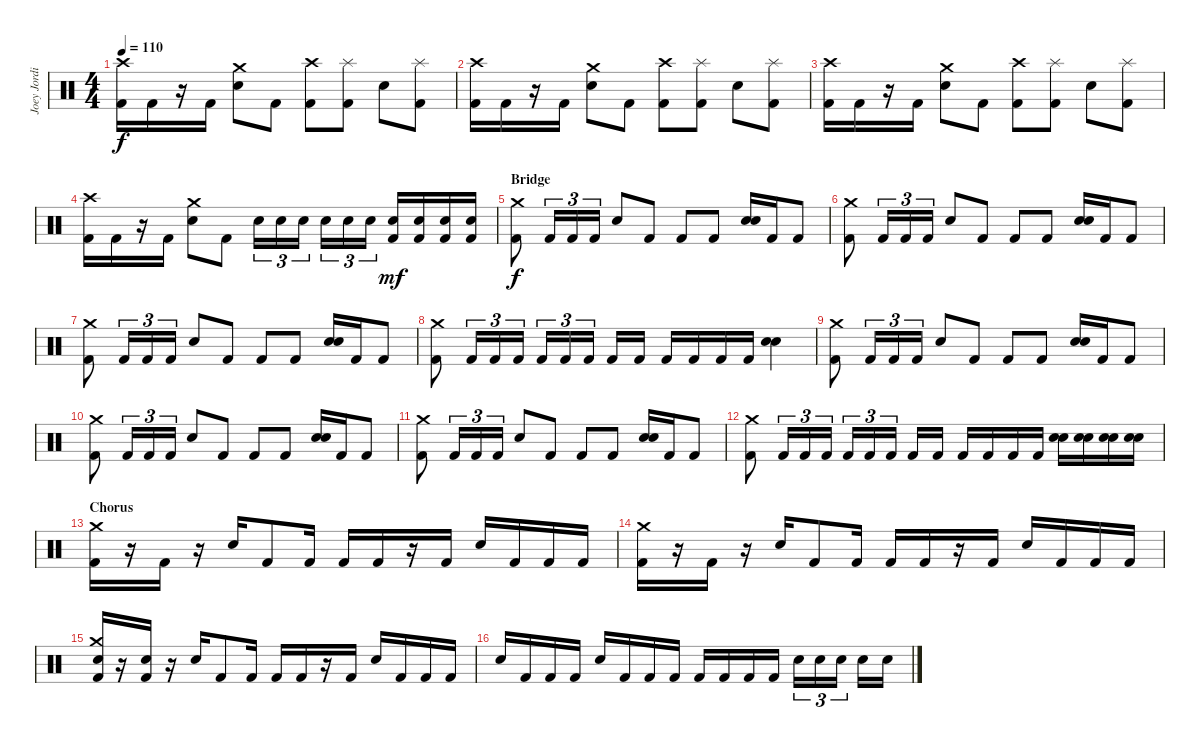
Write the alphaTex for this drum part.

\track ("Joey Jordison" "Joey Jordi") {instrument percussion}
\staff {score}
\articulation defaults
\ts (4 4)
\tempo 110
\clef neutral
\ks c
("Crash high (hit)" "Kick (hit) 2").16{dy f} "Kick (hit) 2".16 r.16 "Kick (hit) 2".16 ("Crash medium (hit)" "Snare (hit) 2").8 "Kick (hit) 2".8 ("Crash high (hit)" "Kick (hit) 2").8 ("Splash (hit)" "Kick (hit) 2").8 "Snare (hit) 2".8 ("Splash (hit)" "Kick (hit) 2").8 |
("Crash high (hit)" "Kick (hit) 2").16 "Kick (hit) 2".16 r.16 "Kick (hit) 2".16 ("Crash medium (hit)" "Snare (hit) 2").8 "Kick (hit) 2".8 ("Crash high (hit)" "Kick (hit) 2").8 ("Splash (hit)" "Kick (hit) 2").8 "Snare (hit) 2".8 ("Splash (hit)" "Kick (hit) 2").8 |
("Crash high (hit)" "Kick (hit) 2").16 "Kick (hit) 2".16 r.16 "Kick (hit) 2".16 ("Crash medium (hit)" "Snare (hit) 2").8 "Kick (hit) 2".8 ("Crash high (hit)" "Kick (hit) 2").8 ("Splash (hit)" "Kick (hit) 2").8 "Snare (hit) 2".8 ("Splash (hit)" "Kick (hit) 2").8 |
("Crash high (hit)" "Kick (hit) 2").16 "Kick (hit) 2".16 r.16 "Kick (hit) 2".16 ("Crash medium (hit)" "Snare (hit) 2").8 "Kick (hit) 2".8 "Snare (hit) 2".16{tu (3 2)} "Snare (hit) 2".16{tu (3 2)} "Snare (hit) 2".16{tu (3 2)} "Snare (hit) 2".16{tu (3 2)} "Snare (hit) 2".16{tu (3 2)} "Snare (hit) 2".16{tu (3 2)} ("Snare (hit) 2" "Kick (hit) 2").16{dy mf} ("Snare (hit) 2" "Kick (hit) 2").16 ("Snare (hit) 2" "Kick (hit) 2").16 ("Snare (hit) 2" "Kick (hit) 2").16 |
\section ("" "Bridge")
("Crash medium (hit)" "Kick (hit) 2").8{dy f} "Kick (hit) 2".16{tu (3 2)} "Kick (hit) 2".16{tu (3 2)} "Kick (hit) 2".16{tu (3 2)} "Snare (hit) 2".8 "Kick (hit) 2".8 "Kick (hit) 2".8 "Kick (hit) 2".8 ("Snare (hit) 2" "Snare (hit) 2").16{bu 240} "Kick (hit) 2".16 "Kick (hit) 2".8 |
("Crash medium (hit)" "Kick (hit) 2").8 "Kick (hit) 2".16{tu (3 2)} "Kick (hit) 2".16{tu (3 2)} "Kick (hit) 2".16{tu (3 2)} "Snare (hit) 2".8 "Kick (hit) 2".8 "Kick (hit) 2".8 "Kick (hit) 2".8 ("Snare (hit) 2" "Snare (hit) 2").16{bu 240} "Kick (hit) 2".16 "Kick (hit) 2".8 |
("Crash medium (hit)" "Kick (hit) 2").8 "Kick (hit) 2".16{tu (3 2)} "Kick (hit) 2".16{tu (3 2)} "Kick (hit) 2".16{tu (3 2)} "Snare (hit) 2".8 "Kick (hit) 2".8 "Kick (hit) 2".8 "Kick (hit) 2".8 ("Snare (hit) 2" "Snare (hit) 2").16{bu 240} "Kick (hit) 2".16 "Kick (hit) 2".8 |
("Crash medium (hit)" "Kick (hit) 2").8 "Kick (hit) 2".16{tu (3 2)} "Kick (hit) 2".16{tu (3 2)} "Kick (hit) 2".16{tu (3 2)} "Kick (hit) 2".16{tu (3 2)} "Kick (hit) 2".16{tu (3 2)} "Kick (hit) 2".16{tu (3 2)} "Kick (hit) 2".16 "Kick (hit) 2".16 "Kick (hit) 2".16 "Kick (hit) 2".16 "Kick (hit) 2".16 "Kick (hit) 2".16 ("Snare (hit) 2" "Snare (hit) 2").4{bu 240} |
("Crash medium (hit)" "Kick (hit) 2").8 "Kick (hit) 2".16{tu (3 2)} "Kick (hit) 2".16{tu (3 2)} "Kick (hit) 2".16{tu (3 2)} "Snare (hit) 2".8 "Kick (hit) 2".8 "Kick (hit) 2".8 "Kick (hit) 2".8 ("Snare (hit) 2" "Snare (hit) 2").16{bu 240} "Kick (hit) 2".16 "Kick (hit) 2".8 |
("Crash medium (hit)" "Kick (hit) 2").8 "Kick (hit) 2".16{tu (3 2)} "Kick (hit) 2".16{tu (3 2)} "Kick (hit) 2".16{tu (3 2)} "Snare (hit) 2".8 "Kick (hit) 2".8 "Kick (hit) 2".8 "Kick (hit) 2".8 ("Snare (hit) 2" "Snare (hit) 2").16{bu 240} "Kick (hit) 2".16 "Kick (hit) 2".8 |
("Crash medium (hit)" "Kick (hit) 2").8 "Kick (hit) 2".16{tu (3 2)} "Kick (hit) 2".16{tu (3 2)} "Kick (hit) 2".16{tu (3 2)} "Snare (hit) 2".8 "Kick (hit) 2".8 "Kick (hit) 2".8 "Kick (hit) 2".8 ("Snare (hit) 2" "Snare (hit) 2").16{bu 240} "Kick (hit) 2".16 "Kick (hit) 2".8 |
("Crash medium (hit)" "Kick (hit) 2").8 "Kick (hit) 2".16{tu (3 2)} "Kick (hit) 2".16{tu (3 2)} "Kick (hit) 2".16{tu (3 2)} "Kick (hit) 2".16{tu (3 2)} "Kick (hit) 2".16{tu (3 2)} "Kick (hit) 2".16{tu (3 2)} "Kick (hit) 2".16 "Kick (hit) 2".16 "Kick (hit) 2".16 "Kick (hit) 2".16 "Kick (hit) 2".16 "Kick (hit) 2".16 ("Snare (hit) 2" "Snare (hit) 2").16{bu 240} ("Snare (hit) 2" "Snare (hit) 2").16{bu 240} ("Snare (hit) 2" "Snare (hit) 2").16{bu 240} ("Snare (hit) 2" "Snare (hit) 2").16 |
\section ("" "Chorus")
("Crash medium (hit)" "Kick (hit) 2").16 r.16 "Kick (hit) 2".16 r.16 "Snare (hit) 2".16 "Kick (hit) 2".8 "Kick (hit) 2".16 "Kick (hit) 2".16 "Kick (hit) 2".16 r.16 "Kick (hit) 2".16 "Snare (hit) 2".16 "Kick (hit) 2".16 "Kick (hit) 2".16 "Kick (hit) 2".16 |
("Crash medium (hit)" "Kick (hit) 2").16 r.16 "Kick (hit) 2".16 r.16 "Snare (hit) 2".16 "Kick (hit) 2".8 "Kick (hit) 2".16 "Kick (hit) 2".16 "Kick (hit) 2".16 r.16 "Kick (hit) 2".16 "Snare (hit) 2".16 "Kick (hit) 2".16 "Kick (hit) 2".16 "Kick (hit) 2".16 |
("Crash medium (hit)" "Snare (hit) 2" "Kick (hit) 2").16 r.16 ("Snare (hit) 2" "Kick (hit) 2").16 r.16 "Snare (hit) 2".16 "Kick (hit) 2".8 "Kick (hit) 2".16 "Kick (hit) 2".16 "Kick (hit) 2".16 r.16 "Kick (hit) 2".16 "Snare (hit) 2".16 "Kick (hit) 2".16 "Kick (hit) 2".16 "Kick (hit) 2".16 |
"Snare (hit) 2".16 "Kick (hit) 2".16 "Kick (hit) 2".16 "Kick (hit) 2".16 "Snare (hit) 2".16 "Kick (hit) 2".16 "Kick (hit) 2".16 "Kick (hit) 2".16 "Kick (hit) 2".16 "Kick (hit) 2".16 "Kick (hit) 2".16 "Kick (hit) 2".16 "Snare (hit) 2".16{tu (3 2)} "Snare (hit) 2".16{tu (3 2)} "Snare (hit) 2".16{tu (3 2)} "Snare (hit) 2".16 "Snare (hit) 2".16
